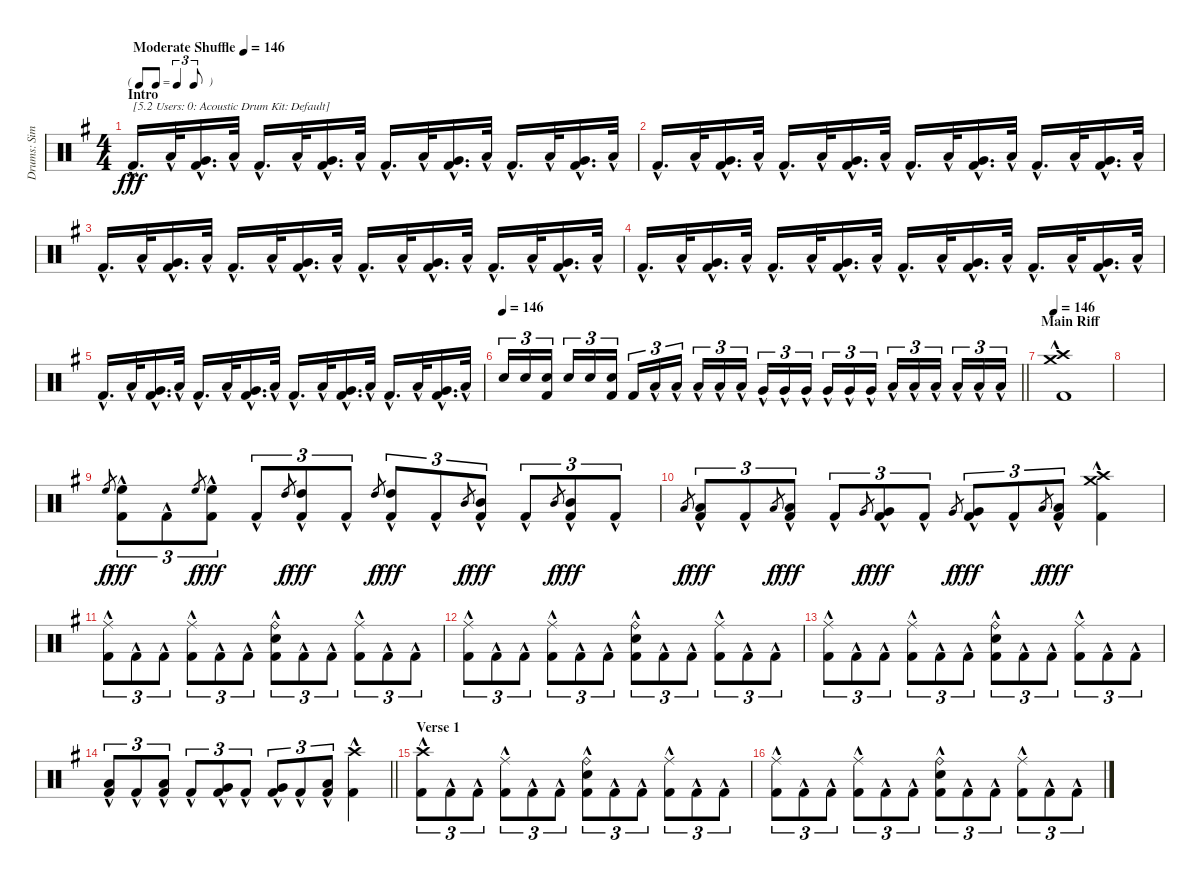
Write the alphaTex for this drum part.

\track ("Drums: Simon" "Drums: Sim") {instrument percussion}
\staff {score}
\articulation defaults
\ts (4 4)
\tf triplet8th
\section ("" "Intro")
\tempo (146 "Moderate Shuffle")
\tempo 74
\tempo (146 "Moderate Shuffle")
\clef neutral
\ks g "Kick (hit) 2"{hac}.16{d txt "[5.2 Users: 0: Acoustic Drum Kit: Default]" dy fff} "Low Tom (hit)"{hac}.32
("Very Low Tom (hit)" "Kick (hit) 2"{hac}).16{d} "Low Floor Tom (hit)"{hac}.32 "Kick (hit) 2"{hac}.16{d} "Low Tom (hit)"{hac}.32 ("Very Low Tom (hit)" "Kick (hit) 2"{hac}).16{d} "Low Floor Tom (hit)"{hac}.32 "Kick (hit) 2"{hac}.16{d} "Low Tom (hit)"{hac}.32 ("Very Low Tom (hit)" "Kick (hit) 2"{hac}).16{d} "Low Floor Tom (hit)"{hac}.32 "Kick (hit) 2"{hac}.16{d} "Low Tom (hit)"{hac}.32 ("Very Low Tom (hit)" "Kick (hit) 2"{hac}).16{d} "Low Floor Tom (hit)"{hac}.32 |
"Kick (hit) 2"{hac}.16{d} "Low Tom (hit)"{hac}.32 ("Very Low Tom (hit)" "Kick (hit) 2"{hac}).16{d} "Low Floor Tom (hit)"{hac}.32 "Kick (hit) 2"{hac}.16{d} "Low Tom (hit)"{hac}.32 ("Very Low Tom (hit)" "Kick (hit) 2"{hac}).16{d} "Low Floor Tom (hit)"{hac}.32 "Kick (hit) 2"{hac}.16{d} "Low Tom (hit)"{hac}.32 ("Very Low Tom (hit)" "Kick (hit) 2"{hac}).16{d} "Low Floor Tom (hit)"{hac}.32 "Kick (hit) 2"{hac}.16{d} "Low Tom (hit)"{hac}.32 ("Very Low Tom (hit)" "Kick (hit) 2"{hac}).16{d} "Low Floor Tom (hit)"{hac}.32 |
"Kick (hit) 2"{hac}.16{d} "Low Tom (hit)"{hac}.32 ("Very Low Tom (hit)" "Kick (hit) 2"{hac}).16{d} "Low Floor Tom (hit)"{hac}.32 "Kick (hit) 2"{hac}.16{d} "Low Tom (hit)"{hac}.32 ("Very Low Tom (hit)" "Kick (hit) 2"{hac}).16{d} "Low Floor Tom (hit)"{hac}.32 "Kick (hit) 2"{hac}.16{d} "Low Tom (hit)"{hac}.32 ("Very Low Tom (hit)" "Kick (hit) 2"{hac}).16{d} "Low Floor Tom (hit)"{hac}.32 "Kick (hit) 2"{hac}.16{d} "Low Tom (hit)"{hac}.32 ("Very Low Tom (hit)" "Kick (hit) 2"{hac}).16{d} "Low Floor Tom (hit)"{hac}.32 |
"Kick (hit) 2"{hac}.16{d} "Low Tom (hit)"{hac}.32 ("Very Low Tom (hit)" "Kick (hit) 2"{hac}).16{d} "Low Floor Tom (hit)"{hac}.32 "Kick (hit) 2"{hac}.16{d} "Low Tom (hit)"{hac}.32 ("Very Low Tom (hit)" "Kick (hit) 2"{hac}).16{d} "Low Floor Tom (hit)"{hac}.32 "Kick (hit) 2"{hac}.16{d} "Low Tom (hit)"{hac}.32 ("Very Low Tom (hit)" "Kick (hit) 2"{hac}).16{d} "Low Floor Tom (hit)"{hac}.32 "Kick (hit) 2"{hac}.16{d} "Low Tom (hit)"{hac}.32 ("Very Low Tom (hit)" "Kick (hit) 2"{hac}).16{d} "Low Floor Tom (hit)"{hac}.32 |
"Kick (hit) 2"{hac}.16{d} "Low Tom (hit)"{hac}.32 ("Very Low Tom (hit)" "Kick (hit) 2"{hac}).16{d} "Low Floor Tom (hit)"{hac}.32 "Kick (hit) 2"{hac}.16{d} "Low Tom (hit)"{hac}.32 ("Very Low Tom (hit)" "Kick (hit) 2"{hac}).16{d} "Low Floor Tom (hit)"{hac}.32 "Kick (hit) 2"{hac}.16{d} "Low Tom (hit)"{hac}.32 ("Very Low Tom (hit)" "Kick (hit) 2"{hac}).16{d} "Low Floor Tom (hit)"{hac}.32 "Kick (hit) 2"{hac}.16{d} "Low Tom (hit)"{hac}.32 ("Very Low Tom (hit)" "Kick (hit) 2"{hac}).16{d} "Low Floor Tom (hit)"{hac}.32 |
\tempo 146
\barLineRight lightlight "Snare (hit) 2".16{tu (3 2)} "Snare (hit) 2".16{tu (3 2)}
("Snare (hit) 2" "Kick (hit) 2").16{tu (3 2) beam splitsecondary} "Snare (hit) 2".16{tu (3 2)} "Snare (hit) 2".16{tu (3 2)} ("Snare (hit) 2" "Kick (hit) 2").16{tu (3 2)} "Kick (hit) 2".16{tu (3 2)} "Low Tom (hit)"{hac}.16{tu (3 2)} "Low Tom (hit)"{hac}.16{tu (3 2) beam splitsecondary} "Low Tom (hit)"{hac}.16{tu (3 2)} "Low Tom (hit)"{hac}.16{tu (3 2)} "Low Tom (hit)"{hac}.16{tu (3 2)} "Very Low Tom (hit)"{hac}.16{tu (3 2)} "Very Low Tom (hit)"{hac}.16{tu (3 2)} "Very Low Tom (hit)"{hac}.16{tu (3 2) beam splitsecondary} "Very Low Tom (hit)"{hac}.16{tu (3 2)} "Very Low Tom (hit)"{hac}.16{tu (3 2)} "Very Low Tom (hit)"{hac}.16{tu (3 2)} "Low Floor Tom (hit)"{hac}.16{tu (3 2)} "Low Floor Tom (hit)"{hac}.16{tu (3 2)} "Low Floor Tom (hit)"{hac}.16{tu (3 2) beam splitsecondary} "Low Floor Tom (hit)"{hac}.16{tu (3 2)} "Low Floor Tom (hit)"{hac}.16{tu (3 2)} "Low Floor Tom (hit)"{hac}.16{tu (3 2)} |
\section ("" "Main Riff")
\tempo 146
("Crash medium (hit)"{hac} "Crash high (hit)"{hac} "Kick (hit) 2"{hac}).1 |
|
"High Floor Tom (hit)".8{gr dy f} ("High Floor Tom (hit)"{hac} "Kick (hit) 2"{hac}).8{tu (3 2) dy fff} "Kick (hit) 2"{hac}.8{tu (3 2)} "High Floor Tom (hit)".8{gr dy f} ("High Floor Tom (hit)"{hac} "Kick (hit) 2"{hac}).8{tu (3 2) dy fff} "Kick (hit) 2"{hac}.8{tu (3 2)} "High Tom (hit)".8{gr dy f} ("High Tom (hit)"{hac} "Kick (hit) 2"{hac}).8{tu (3 2) dy fff} "Kick (hit) 2"{hac}.8{tu (3 2)} "High Tom (hit)".8{gr dy f} ("High Tom (hit)"{hac} "Kick (hit) 2"{hac}).8{tu (3 2) dy fff} "Kick (hit) 2"{hac}.8{tu (3 2)} "Mid Tom (hit)".8{gr dy f} ("Mid Tom (hit)"{hac} "Kick (hit) 2"{hac}).8{tu (3 2) dy fff} "Kick (hit) 2"{hac}.8{tu (3 2)} "Mid Tom (hit)".8{gr dy f} ("Mid Tom (hit)"{hac} "Kick (hit) 2"{hac}).8{tu (3 2) dy fff} "Kick (hit) 2"{hac}.8{tu (3 2)} |
"Low Tom (hit)".8{gr dy f} ("Low Tom (hit)"{hac} "Kick (hit) 2"{hac}).8{tu (3 2) dy fff} "Kick (hit) 2"{hac}.8{tu (3 2)} "Low Tom (hit)".8{gr dy f} ("Low Tom (hit)"{hac} "Kick (hit) 2"{hac}).8{tu (3 2) dy fff} "Kick (hit) 2"{hac}.8{tu (3 2)} "Very Low Tom (hit)".8{gr dy f} ("Very Low Tom (hit)"{hac} "Kick (hit) 2"{hac}).8{tu (3 2) dy fff} "Kick (hit) 2"{hac}.8{tu (3 2)} "Very Low Tom (hit)".8{gr dy f} ("Very Low Tom (hit)"{hac} "Kick (hit) 2"{hac}).8{tu (3 2) dy fff} "Kick (hit) 2"{hac}.8{tu (3 2)} "Low Floor Tom (hit)".8{gr dy f} ("Low Floor Tom (hit)"{hac} "Kick (hit) 2"{hac}).8{tu (3 2) dy fff} ("Crash medium (hit)"{hac} "Crash high (hit)"{hac} "Kick (hit) 2"{hac}).4 |
("Ride (middle)"{hac} "Kick (hit) 2"{hac}).8{tu (3 2)} "Kick (hit) 2"{hac}.8{tu (3 2)} "Kick (hit) 2"{hac}.8{tu (3 2)} ("Ride (middle)"{hac} "Kick (hit) 2"{hac}).8{tu (3 2)} "Kick (hit) 2"{hac}.8{tu (3 2)} "Kick (hit) 2"{hac}.8{tu (3 2)} ("Ride (bell)"{hac} "Snare (hit) 2"{hac} "Kick (hit) 2"{hac}).8{tu (3 2)} "Kick (hit) 2"{hac}.8{tu (3 2)} "Kick (hit) 2"{hac}.8{tu (3 2)} ("Ride (middle)"{hac} "Kick (hit) 2"{hac}).8{tu (3 2)} "Kick (hit) 2"{hac}.8{tu (3 2)} "Kick (hit) 2"{hac}.8{tu (3 2)} |
("Ride (middle)"{hac} "Kick (hit) 2"{hac}).8{tu (3 2)} "Kick (hit) 2"{hac}.8{tu (3 2)} "Kick (hit) 2"{hac}.8{tu (3 2)} ("Ride (middle)"{hac} "Kick (hit) 2"{hac}).8{tu (3 2)} "Kick (hit) 2"{hac}.8{tu (3 2)} "Kick (hit) 2"{hac}.8{tu (3 2)} ("Ride (bell)"{hac} "Snare (hit) 2"{hac} "Kick (hit) 2"{hac}).8{tu (3 2)} "Kick (hit) 2"{hac}.8{tu (3 2)} "Kick (hit) 2"{hac}.8{tu (3 2)} ("Ride (middle)"{hac} "Kick (hit) 2"{hac}).8{tu (3 2)} "Kick (hit) 2"{hac}.8{tu (3 2)} "Kick (hit) 2"{hac}.8{tu (3 2)} |
("Ride (middle)"{hac} "Kick (hit) 2"{hac}).8{tu (3 2)} "Kick (hit) 2"{hac}.8{tu (3 2)} "Kick (hit) 2"{hac}.8{tu (3 2)} ("Ride (middle)"{hac} "Kick (hit) 2"{hac}).8{tu (3 2)} "Kick (hit) 2"{hac}.8{tu (3 2)} "Kick (hit) 2"{hac}.8{tu (3 2)} ("Ride (bell)"{hac} "Snare (hit) 2"{hac} "Kick (hit) 2"{hac}).8{tu (3 2)} "Kick (hit) 2"{hac}.8{tu (3 2)} "Kick (hit) 2"{hac}.8{tu (3 2)} ("Ride (middle)"{hac} "Kick (hit) 2"{hac}).8{tu (3 2)} "Kick (hit) 2"{hac}.8{tu (3 2)} "Kick (hit) 2"{hac}.8{tu (3 2)} |
\barLineRight lightlight
("Low Tom (hit)"{hac} "Kick (hit) 2"{hac}).8{tu (3 2)} "Kick (hit) 2"{hac}.8{tu (3 2)} ("Low Tom (hit)"{hac} "Kick (hit) 2"{hac}).8{tu (3 2)} "Kick (hit) 2"{hac}.8{tu (3 2)} ("Very Low Tom (hit)"{hac} "Kick (hit) 2"{hac}).8{tu (3 2)} "Kick (hit) 2"{hac}.8{tu (3 2)} ("Very Low Tom (hit)"{hac} "Kick (hit) 2"{hac}).8{tu (3 2)} "Kick (hit) 2"{hac}.8{tu (3 2)} ("Low Floor Tom (hit)"{hac} "Kick (hit) 2"{hac}).8{tu (3 2)} ("Crash high (hit)"{hac} "Kick (hit) 2"{hac}).4 |
\section ("" "Verse 1")
("Crash high (hit)"{hac} "Kick (hit) 2"{hac}).8{tu (3 2)} "Kick (hit) 2"{hac}.8{tu (3 2)} "Kick (hit) 2"{hac}.8{tu (3 2)} ("Ride (middle)"{hac} "Kick (hit) 2"{hac}).8{tu (3 2)} "Kick (hit) 2"{hac}.8{tu (3 2)} "Kick (hit) 2"{hac}.8{tu (3 2)} ("Ride (bell)"{hac} "Snare (hit) 2"{hac} "Kick (hit) 2"{hac}).8{tu (3 2)} "Kick (hit) 2"{hac}.8{tu (3 2)} "Kick (hit) 2"{hac}.8{tu (3 2)} ("Ride (middle)"{hac} "Kick (hit) 2"{hac}).8{tu (3 2)} "Kick (hit) 2"{hac}.8{tu (3 2)} "Kick (hit) 2"{hac}.8{tu (3 2)} |
("Ride (middle)"{hac} "Kick (hit) 2"{hac}).8{tu (3 2)} "Kick (hit) 2"{hac}.8{tu (3 2)} "Kick (hit) 2"{hac}.8{tu (3 2)} ("Ride (middle)"{hac} "Kick (hit) 2"{hac}).8{tu (3 2)} "Kick (hit) 2"{hac}.8{tu (3 2)} "Kick (hit) 2"{hac}.8{tu (3 2)} ("Ride (bell)"{hac} "Snare (hit) 2"{hac} "Kick (hit) 2"{hac}).8{tu (3 2)} "Kick (hit) 2"{hac}.8{tu (3 2)} "Kick (hit) 2"{hac}.8{tu (3 2)} ("Ride (middle)"{hac} "Kick (hit) 2"{hac}).8{tu (3 2)} "Kick (hit) 2"{hac}.8{tu (3 2)} "Kick (hit) 2"{hac}.8{tu (3 2)}
